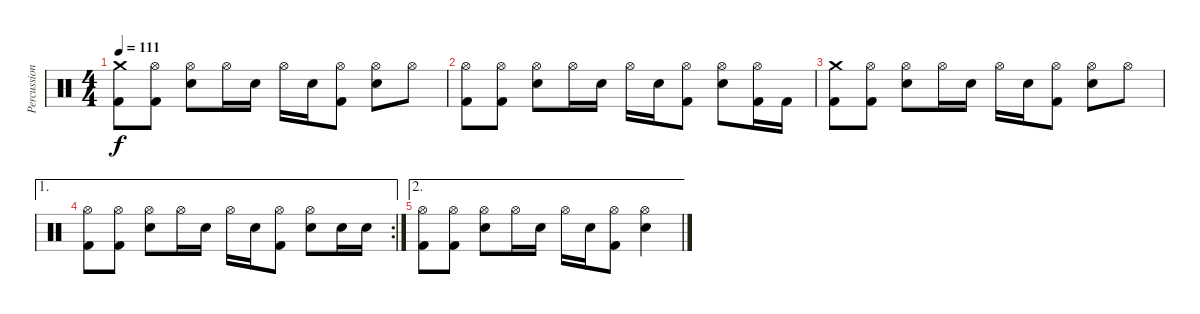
\track ("Percussions" "Percussion") {instrument percussion}
\staff {score}
\articulation defaults
\ts (4 4)
\tempo 111
\clef neutral
\ks c
("Crash medium (hit)" "Kick (hit) 2").8{dy f} ("Hi-Hat (open)" "Kick (hit) 2").8 ("Hi-Hat (open)" "Electric Snare (hit)").8 "Hi-Hat (open)".16 "Electric Snare (hit)".16 "Hi-Hat (open)".16 "Electric Snare (hit)".16 ("Hi-Hat (open)" "Kick (hit) 2").8 ("Hi-Hat (open)" "Electric Snare (hit)").8 "Hi-Hat (open)".8 |
("Hi-Hat (open)" "Kick (hit) 2").8 ("Hi-Hat (open)" "Kick (hit) 2").8 ("Hi-Hat (open)" "Electric Snare (hit)").8 "Hi-Hat (open)".16 "Electric Snare (hit)".16 "Hi-Hat (open)".16 "Electric Snare (hit)".16 ("Hi-Hat (open)" "Kick (hit) 2").8 ("Hi-Hat (open)" "Electric Snare (hit)").8 ("Hi-Hat (open)" "Kick (hit) 2").16 "Kick (hit) 2".16 |
("Crash medium (hit)" "Kick (hit) 2").8 ("Hi-Hat (open)" "Kick (hit) 2").8 ("Hi-Hat (open)" "Electric Snare (hit)").8 "Hi-Hat (open)".16 "Electric Snare (hit)".16 "Hi-Hat (open)".16 "Electric Snare (hit)".16 ("Hi-Hat (open)" "Kick (hit) 2").8 ("Hi-Hat (open)" "Electric Snare (hit)").8 "Hi-Hat (open)".8 |
\ae 1
\rc 2
("Hi-Hat (open)" "Kick (hit) 2").8 ("Hi-Hat (open)" "Kick (hit) 2").8 ("Hi-Hat (open)" "Electric Snare (hit)").8 "Hi-Hat (open)".16 "Electric Snare (hit)".16 "Hi-Hat (open)".16 "Electric Snare (hit)".16 ("Hi-Hat (open)" "Kick (hit) 2").8 ("Hi-Hat (open)" "Electric Snare (hit)").8 "Electric Snare (hit)".16 "Electric Snare (hit)".16 |
\ae 2
("Hi-Hat (open)" "Kick (hit) 2").8 ("Hi-Hat (open)" "Kick (hit) 2").8 ("Hi-Hat (open)" "Electric Snare (hit)").8 "Hi-Hat (open)".16 "Electric Snare (hit)".16 "Hi-Hat (open)".16 "Electric Snare (hit)".16 ("Hi-Hat (open)" "Kick (hit) 2").8 ("Hi-Hat (open)" "Electric Snare (hit)").4
